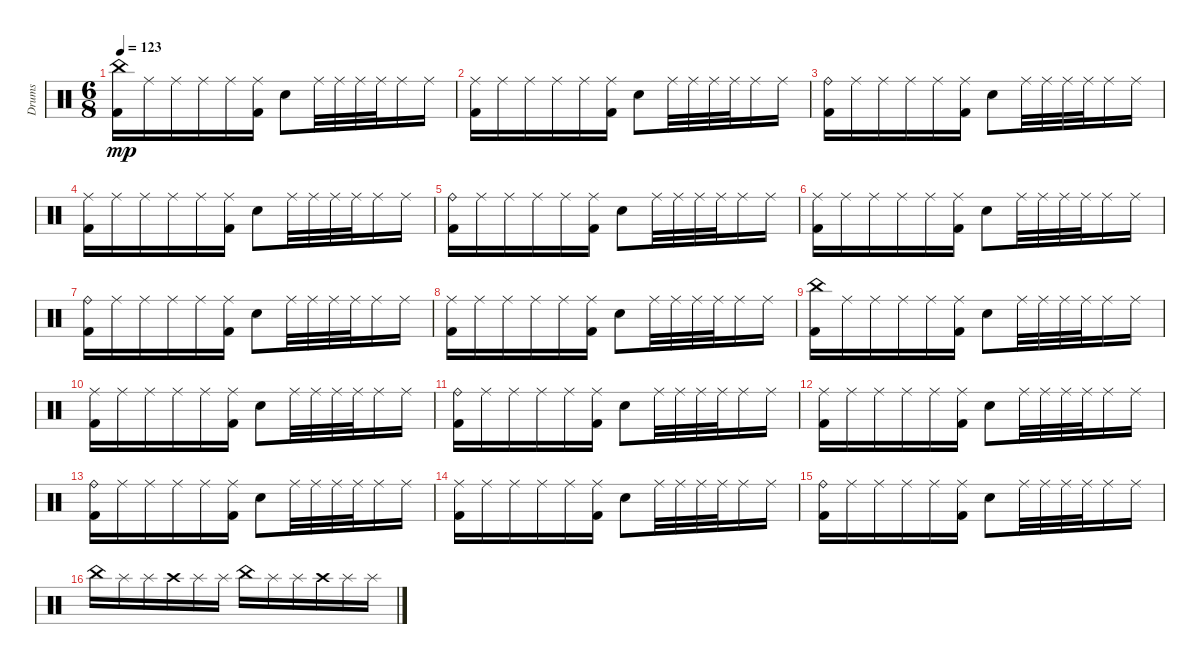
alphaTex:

\track ("Drums" "Drums") {instrument percussion}
\staff {score}
\articulation defaults
\ts (6 8)
\tempo 123
\clef neutral
\ks c
("China (hit)" "Kick (hit) 2").16{dy mp} "Ride (middle)".16 "Ride (middle)".16 "Ride (middle)".16 "Ride (middle)".16 ("Ride (middle)" "Kick (hit) 2").16 "Electric Snare (hit)".8 "Ride (middle)".32 "Ride (middle)".32 "Ride (middle)".32 "Ride (middle)".32 "Ride (middle)".16 "Ride (middle)".16 |
("Ride (middle)" "Kick (hit) 2").16 "Ride (middle)".16 "Ride (middle)".16 "Ride (middle)".16 "Ride (middle)".16 ("Ride (middle)" "Kick (hit) 2").16 "Electric Snare (hit)".8 "Ride (middle)".32 "Ride (middle)".32 "Ride (middle)".32 "Ride (middle)".32 "Ride (middle)".16 "Ride (middle)".16 |
("Ride (bell)" "Kick (hit) 2").16 "Ride (middle)".16 "Ride (middle)".16 "Ride (middle)".16 "Ride (middle)".16 ("Ride (middle)" "Kick (hit) 2").16 "Electric Snare (hit)".8 "Ride (middle)".32 "Ride (middle)".32 "Ride (middle)".32 "Ride (middle)".32 "Ride (middle)".16 "Ride (middle)".16 |
("Ride (middle)" "Kick (hit) 2").16 "Ride (middle)".16 "Ride (middle)".16 "Ride (middle)".16 "Ride (middle)".16 ("Ride (middle)" "Kick (hit) 2").16 "Electric Snare (hit)".8 "Ride (middle)".32 "Ride (middle)".32 "Ride (middle)".32 "Ride (middle)".32 "Ride (middle)".16 "Ride (middle)".16 |
("Ride (bell)" "Kick (hit) 2").16 "Ride (middle)".16 "Ride (middle)".16 "Ride (middle)".16 "Ride (middle)".16 ("Ride (middle)" "Kick (hit) 2").16 "Electric Snare (hit)".8 "Ride (middle)".32 "Ride (middle)".32 "Ride (middle)".32 "Ride (middle)".32 "Ride (middle)".16 "Ride (middle)".16 |
("Ride (middle)" "Kick (hit) 2").16 "Ride (middle)".16 "Ride (middle)".16 "Ride (middle)".16 "Ride (middle)".16 ("Ride (middle)" "Kick (hit) 2").16 "Electric Snare (hit)".8 "Ride (middle)".32 "Ride (middle)".32 "Ride (middle)".32 "Ride (middle)".32 "Ride (middle)".16 "Ride (middle)".16 |
("Ride (bell)" "Kick (hit) 2").16 "Ride (middle)".16 "Ride (middle)".16 "Ride (middle)".16 "Ride (middle)".16 ("Ride (middle)" "Kick (hit) 2").16 "Electric Snare (hit)".8 "Ride (middle)".32 "Ride (middle)".32 "Ride (middle)".32 "Ride (middle)".32 "Ride (middle)".16 "Ride (middle)".16 |
("Ride (middle)" "Kick (hit) 2").16 "Ride (middle)".16 "Ride (middle)".16 "Ride (middle)".16 "Ride (middle)".16 ("Ride (middle)" "Kick (hit) 2").16 "Electric Snare (hit)".8 "Ride (middle)".32 "Ride (middle)".32 "Ride (middle)".32 "Ride (middle)".32 "Ride (middle)".16 "Ride (middle)".16 |
("China (hit)" "Kick (hit) 2").16 "Ride (middle)".16 "Ride (middle)".16 "Ride (middle)".16 "Ride (middle)".16 ("Ride (middle)" "Kick (hit) 2").16 "Electric Snare (hit)".8 "Ride (middle)".32 "Ride (middle)".32 "Ride (middle)".32 "Ride (middle)".32 "Ride (middle)".16 "Ride (middle)".16 |
("Ride (middle)" "Kick (hit) 2").16 "Ride (middle)".16 "Ride (middle)".16 "Ride (middle)".16 "Ride (middle)".16 ("Ride (middle)" "Kick (hit) 2").16 "Electric Snare (hit)".8 "Ride (middle)".32 "Ride (middle)".32 "Ride (middle)".32 "Ride (middle)".32 "Ride (middle)".16 "Ride (middle)".16 |
("Ride (bell)" "Kick (hit) 2").16 "Ride (middle)".16 "Ride (middle)".16 "Ride (middle)".16 "Ride (middle)".16 ("Ride (middle)" "Kick (hit) 2").16 "Electric Snare (hit)".8 "Ride (middle)".32 "Ride (middle)".32 "Ride (middle)".32 "Ride (middle)".32 "Ride (middle)".16 "Ride (middle)".16 |
("Ride (middle)" "Kick (hit) 2").16 "Ride (middle)".16 "Ride (middle)".16 "Ride (middle)".16 "Ride (middle)".16 ("Ride (middle)" "Kick (hit) 2").16 "Electric Snare (hit)".8 "Ride (middle)".32 "Ride (middle)".32 "Ride (middle)".32 "Ride (middle)".32 "Ride (middle)".16 "Ride (middle)".16 |
("Ride (bell)" "Kick (hit) 2").16 "Ride (middle)".16 "Ride (middle)".16 "Ride (middle)".16 "Ride (middle)".16 ("Ride (middle)" "Kick (hit) 2").16 "Electric Snare (hit)".8 "Ride (middle)".32 "Ride (middle)".32 "Ride (middle)".32 "Ride (middle)".32 "Ride (middle)".16 "Ride (middle)".16 |
("Ride (middle)" "Kick (hit) 2").16 "Ride (middle)".16 "Ride (middle)".16 "Ride (middle)".16 "Ride (middle)".16 ("Ride (middle)" "Kick (hit) 2").16 "Electric Snare (hit)".8 "Ride (middle)".32 "Ride (middle)".32 "Ride (middle)".32 "Ride (middle)".32 "Ride (middle)".16 "Ride (middle)".16 |
("Ride (bell)" "Kick (hit) 2").16 "Ride (middle)".16 "Ride (middle)".16 "Ride (middle)".16 "Ride (middle)".16 ("Ride (middle)" "Kick (hit) 2").16 "Electric Snare (hit)".8 "Ride (middle)".32 "Ride (middle)".32 "Ride (middle)".32 "Ride (middle)".32 "Ride (middle)".16 "Ride (middle)".16 |
"China (hit)".16 "Splash (hit)".16 "Splash (hit)".16 "Crash high (hit)".16 "Splash (hit)".16 "Splash (hit)".16 "China (hit)".16 "Splash (hit)".16 "Splash (hit)".16 "Crash high (hit)".16 "Splash (hit)".16 "Splash (hit)".16
